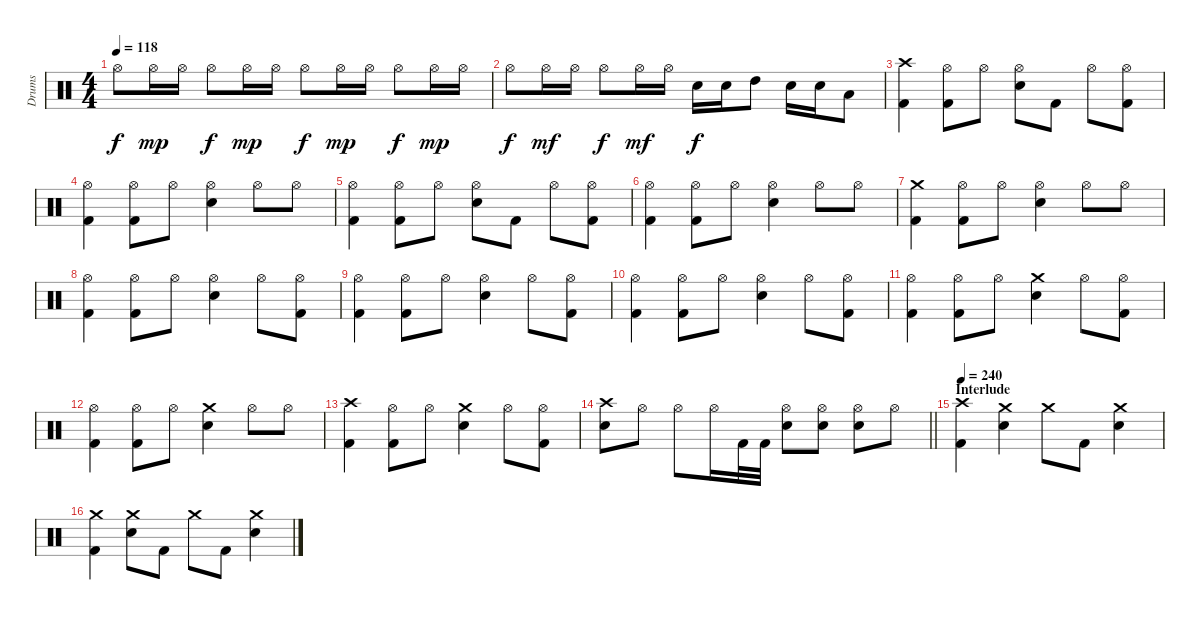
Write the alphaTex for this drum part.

\track ("Drums" "Drums") {instrument percussion}
\staff {score}
\articulation defaults
\ts (4 4)
\tempo 118
\clef neutral
\ks c "Hi-Hat (open)".8{dy f} "Hi-Hat (open)".16{dy mp} "Hi-Hat (open)".16 "Hi-Hat (open)".8{dy f} "Hi-Hat (open)".16{dy mp} "Hi-Hat (open)".16 "Hi-Hat (open)".8{dy f} "Hi-Hat (open)".16{dy mp} "Hi-Hat (open)".16 "Hi-Hat (open)".8{dy f} "Hi-Hat (open)".16{dy mp} "Hi-Hat (open)".16
|
"Hi-Hat (open)".8{dy f} "Hi-Hat (open)".16{dy mf} "Hi-Hat (open)".16 "Hi-Hat (open)".8{dy f} "Hi-Hat (open)".16{dy mf} "Hi-Hat (open)".16 "Snare (hit) 2".16{dy f} "Snare (hit) 2".16 "High Tom (hit)".8 "Snare (hit) 2".16 "Snare (hit) 2".16 "Low Tom (hit)".8 |
("Crash high (hit)" "Kick (hit) 2").4 ("Hi-Hat (open)" "Kick (hit) 2").8 "Hi-Hat (open)".8 ("Hi-Hat (open)" "Snare (hit) 2").8 "Kick (hit) 2".8 "Hi-Hat (open)".8 ("Hi-Hat (open)" "Kick (hit) 2").8 |
("Hi-Hat (open)" "Kick (hit) 2").4 ("Hi-Hat (open)" "Kick (hit) 2").8 "Hi-Hat (open)".8 ("Hi-Hat (open)" "Snare (hit) 2").4 "Hi-Hat (open)".8 "Hi-Hat (open)".8 |
("Hi-Hat (open)" "Kick (hit) 2").4 ("Hi-Hat (open)" "Kick (hit) 2").8 "Hi-Hat (open)".8 ("Hi-Hat (open)" "Snare (hit) 2").8 "Kick (hit) 2".8 "Hi-Hat (open)".8 ("Hi-Hat (open)" "Kick (hit) 2").8 |
("Hi-Hat (open)" "Kick (hit) 2").4 ("Hi-Hat (open)" "Kick (hit) 2").8 "Hi-Hat (open)".8 ("Hi-Hat (open)" "Snare (hit) 2").4 "Hi-Hat (open)".8 "Hi-Hat (open)".8 |
("Crash medium (hit)" "Kick (hit) 2").4 ("Hi-Hat (open)" "Kick (hit) 2").8 "Hi-Hat (open)".8 ("Hi-Hat (open)" "Snare (hit) 2").4 "Hi-Hat (open)".8 "Hi-Hat (open)".8 |
("Hi-Hat (open)" "Kick (hit) 2").4 ("Hi-Hat (open)" "Kick (hit) 2").8 "Hi-Hat (open)".8 ("Hi-Hat (open)" "Snare (hit) 2").4 "Hi-Hat (open)".8 ("Hi-Hat (open)" "Kick (hit) 2").8 |
("Hi-Hat (open)" "Kick (hit) 2").4 ("Hi-Hat (open)" "Kick (hit) 2").8 "Hi-Hat (open)".8 ("Hi-Hat (open)" "Snare (hit) 2").4 "Hi-Hat (open)".8 ("Hi-Hat (open)" "Kick (hit) 2").8 |
("Hi-Hat (open)" "Kick (hit) 2").4 ("Hi-Hat (open)" "Kick (hit) 2").8 "Hi-Hat (open)".8 ("Hi-Hat (open)" "Snare (hit) 2").4 "Hi-Hat (open)".8 ("Hi-Hat (open)" "Kick (hit) 2").8 |
("Hi-Hat (open)" "Kick (hit) 2").4 ("Hi-Hat (open)" "Kick (hit) 2").8 "Hi-Hat (open)".8 ("Crash medium (hit)" "Snare (hit) 2").4 "Hi-Hat (open)".8 ("Hi-Hat (open)" "Kick (hit) 2").8 |
("Hi-Hat (open)" "Kick (hit) 2").4 ("Hi-Hat (open)" "Kick (hit) 2").8 "Hi-Hat (open)".8 ("Crash medium (hit)" "Snare (hit) 2").4 "Hi-Hat (open)".8 "Hi-Hat (open)".8 |
("Crash high (hit)" "Kick (hit) 2").4 ("Hi-Hat (open)" "Kick (hit) 2").8 "Hi-Hat (open)".8 ("Crash medium (hit)" "Snare (hit) 2").4 "Hi-Hat (open)".8 ("Hi-Hat (open)" "Kick (hit) 2").8 |
\barLineRight lightlight
("Crash high (hit)" "Snare (hit) 2").8 "Hi-Hat (open)".8 "Hi-Hat (open)".8 "Hi-Hat (open)".16 "Kick (hit) 2".32 "Kick (hit) 2".32 ("Hi-Hat (open)" "Snare (hit) 2").8 ("Hi-Hat (open)" "Snare (hit) 2").8 ("Hi-Hat (open)" "Snare (hit) 2").8 "Hi-Hat (open)".8 |
\section ("" "Interlude")
\tempo 240
("Crash high (hit)" "Kick (hit) 2").4 ("Crash medium (hit)" "Snare (hit) 2").4 "Crash medium (hit)".8 "Kick (hit) 2".8 ("Crash medium (hit)" "Snare (hit) 2").4 |
("Crash medium (hit)" "Kick (hit) 2").4 ("Crash medium (hit)" "Snare (hit) 2").8 "Kick (hit) 2".8 "Crash medium (hit)".8 "Kick (hit) 2".8 ("Crash medium (hit)" "Snare (hit) 2").4
